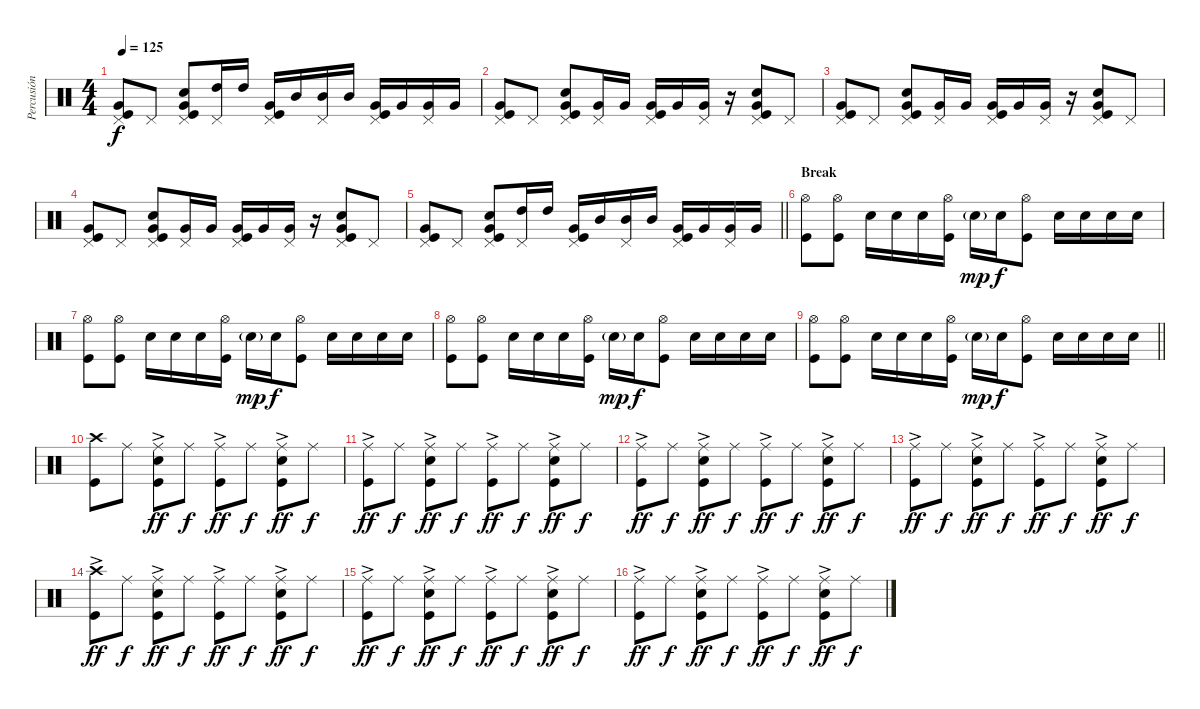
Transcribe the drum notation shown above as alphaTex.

\track ("Percusión" "Percusión") {instrument percussion}
\staff {score}
\articulation defaults
\ts (4 4)
\tempo 125
\clef neutral
\ks c
("Very Low Tom (hit)" "Pedal Hi-Hat (hit)" "Kick (hit)").8{dy f} "Pedal Hi-Hat (hit)".8 ("Very Low Tom (hit)" "Snare (hit) 2" "Pedal Hi-Hat (hit)" "Kick (hit)").8 ("High Tom (hit)" "Pedal Hi-Hat (hit)").16 "High Tom (hit)".16 ("Very Low Tom (hit)" "Pedal Hi-Hat (hit)" "Kick (hit)").16 "Mid Tom (hit)".16 ("Mid Tom (hit)" "Pedal Hi-Hat (hit)").16 "Mid Tom (hit)".16 ("Very Low Tom (hit)" "Pedal Hi-Hat (hit)" "Kick (hit)").16 "Very Low Tom (hit)".16 ("Very Low Tom (hit)" "Pedal Hi-Hat (hit)").16 "Very Low Tom (hit)".16 |
("Very Low Tom (hit)" "Kick (hit)" "Pedal Hi-Hat (hit)").8 "Pedal Hi-Hat (hit)".8 ("Very Low Tom (hit)" "Kick (hit)" "Snare (hit) 2" "Pedal Hi-Hat (hit)").8 ("Very Low Tom (hit)" "Pedal Hi-Hat (hit)").16 "Very Low Tom (hit)".16 ("Very Low Tom (hit)" "Pedal Hi-Hat (hit)" "Kick (hit)").16 "Very Low Tom (hit)".16 ("Very Low Tom (hit)" "Pedal Hi-Hat (hit)").16 r.16 ("Snare (hit) 2" "Very Low Tom (hit)" "Pedal Hi-Hat (hit)" "Kick (hit)").8 "Pedal Hi-Hat (hit)".8 |
("Very Low Tom (hit)" "Kick (hit)" "Pedal Hi-Hat (hit)").8 "Pedal Hi-Hat (hit)".8 ("Very Low Tom (hit)" "Kick (hit)" "Snare (hit) 2" "Pedal Hi-Hat (hit)").8 ("Very Low Tom (hit)" "Pedal Hi-Hat (hit)").16 "Very Low Tom (hit)".16 ("Very Low Tom (hit)" "Pedal Hi-Hat (hit)" "Kick (hit)").16 "Very Low Tom (hit)".16 ("Very Low Tom (hit)" "Pedal Hi-Hat (hit)").16 r.16 ("Snare (hit) 2" "Very Low Tom (hit)" "Pedal Hi-Hat (hit)" "Kick (hit)").8 "Pedal Hi-Hat (hit)".8 |
("Very Low Tom (hit)" "Kick (hit)" "Pedal Hi-Hat (hit)").8 "Pedal Hi-Hat (hit)".8 ("Very Low Tom (hit)" "Kick (hit)" "Snare (hit) 2" "Pedal Hi-Hat (hit)").8 ("Very Low Tom (hit)" "Pedal Hi-Hat (hit)").16 "Very Low Tom (hit)".16 ("Very Low Tom (hit)" "Pedal Hi-Hat (hit)" "Kick (hit)").16 "Very Low Tom (hit)".16 ("Very Low Tom (hit)" "Pedal Hi-Hat (hit)").16 r.16 ("Snare (hit) 2" "Very Low Tom (hit)" "Pedal Hi-Hat (hit)" "Kick (hit)").8 "Pedal Hi-Hat (hit)".8 |
\barLineRight lightlight
("Very Low Tom (hit)" "Pedal Hi-Hat (hit)" "Kick (hit)").8 "Pedal Hi-Hat (hit)".8 ("Very Low Tom (hit)" "Snare (hit) 2" "Pedal Hi-Hat (hit)" "Kick (hit)").8 ("High Tom (hit)" "Pedal Hi-Hat (hit)").16 "High Tom (hit)".16 ("Very Low Tom (hit)" "Pedal Hi-Hat (hit)" "Kick (hit)").16 "Mid Tom (hit)".16 ("Mid Tom (hit)" "Pedal Hi-Hat (hit)").16 "Mid Tom (hit)".16 ("Very Low Tom (hit)" "Pedal Hi-Hat (hit)" "Kick (hit)").16 "Very Low Tom (hit)".16 ("Very Low Tom (hit)" "Pedal Hi-Hat (hit)").16 "Very Low Tom (hit)".16 |
\section ("" "Break")
("Hi-Hat (open)" "Kick (hit)").8 ("Hi-Hat (open)" "Kick (hit)").8 "Snare (hit) 2".16 "Snare (hit) 2".16 "Snare (hit) 2".16 ("Hi-Hat (open)" "Kick (hit)").16 "Snare (hit) 2"{g}.16{dy mp} "Snare (hit) 2".16{dy f} ("Hi-Hat (open)" "Kick (hit)").8 "Snare (hit) 2".16 "Snare (hit) 2".16 "Snare (hit) 2".16 "Snare (hit) 2".16 |
("Hi-Hat (open)" "Kick (hit)").8 ("Hi-Hat (open)" "Kick (hit)").8 "Snare (hit) 2".16 "Snare (hit) 2".16 "Snare (hit) 2".16 ("Hi-Hat (open)" "Kick (hit)").16 "Snare (hit) 2"{g}.16{dy mp} "Snare (hit) 2".16{dy f} ("Hi-Hat (open)" "Kick (hit)").8 "Snare (hit) 2".16 "Snare (hit) 2".16 "Snare (hit) 2".16 "Snare (hit) 2".16 |
("Hi-Hat (open)" "Kick (hit)").8 ("Hi-Hat (open)" "Kick (hit)").8 "Snare (hit) 2".16 "Snare (hit) 2".16 "Snare (hit) 2".16 ("Hi-Hat (open)" "Kick (hit)").16 "Snare (hit) 2"{g}.16{dy mp} "Snare (hit) 2".16{dy f} ("Hi-Hat (open)" "Kick (hit)").8 "Snare (hit) 2".16 "Snare (hit) 2".16 "Snare (hit) 2".16 "Snare (hit) 2".16 |
\barLineRight lightlight
("Hi-Hat (open)" "Kick (hit)").8 ("Hi-Hat (open)" "Kick (hit)").8 "Snare (hit) 2".16 "Snare (hit) 2".16 "Snare (hit) 2".16 ("Hi-Hat (open)" "Kick (hit)").16 "Snare (hit) 2"{g}.16{dy mp} "Snare (hit) 2".16{dy f} ("Hi-Hat (open)" "Kick (hit)").8 "Snare (hit) 2".16 "Snare (hit) 2".16 "Snare (hit) 2".16 "Snare (hit) 2".16 |
("Crash high (hit)" "Kick (hit)").8 "Ride (middle)".8 ("Ride (middle)"{ac} "Snare (hit) 2" "Kick (hit)").8{dy ff} "Ride (middle)".8{dy f} ("Ride (middle)"{ac} "Kick (hit)").8{dy ff} "Ride (middle)".8{dy f} ("Ride (middle)"{ac} "Snare (hit) 2" "Kick (hit)").8{dy ff} "Ride (middle)".8{dy f} |
("Ride (middle)"{ac} "Kick (hit)").8{dy ff} "Ride (middle)".8{dy f} ("Ride (middle)"{ac} "Snare (hit) 2" "Kick (hit)").8{dy ff} "Ride (middle)".8{dy f} ("Ride (middle)"{ac} "Kick (hit)").8{dy ff} "Ride (middle)".8{dy f} ("Ride (middle)"{ac} "Snare (hit) 2" "Kick (hit)").8{dy ff} "Ride (middle)".8{dy f} |
("Ride (middle)"{ac} "Kick (hit)").8{dy ff} "Ride (middle)".8{dy f} ("Ride (middle)"{ac} "Snare (hit) 2" "Kick (hit)").8{dy ff} "Ride (middle)".8{dy f} ("Ride (middle)"{ac} "Kick (hit)").8{dy ff} "Ride (middle)".8{dy f} ("Ride (middle)"{ac} "Snare (hit) 2" "Kick (hit)").8{dy ff} "Ride (middle)".8{dy f} |
("Ride (middle)"{ac} "Kick (hit)").8{dy ff} "Ride (middle)".8{dy f} ("Ride (middle)"{ac} "Snare (hit) 2" "Kick (hit)").8{dy ff} "Ride (middle)".8{dy f} ("Ride (middle)"{ac} "Kick (hit)").8{dy ff} "Ride (middle)".8{dy f} ("Ride (middle)"{ac} "Snare (hit) 2" "Kick (hit)").8{dy ff} "Ride (middle)".8{dy f} |
("Crash high (hit)"{ac} "Kick (hit)").8{dy ff} "Ride (middle)".8{dy f} ("Ride (middle)"{ac} "Snare (hit) 2" "Kick (hit)").8{dy ff} "Ride (middle)".8{dy f} ("Ride (middle)"{ac} "Kick (hit)").8{dy ff} "Ride (middle)".8{dy f} ("Ride (middle)"{ac} "Snare (hit) 2" "Kick (hit)").8{dy ff} "Ride (middle)".8{dy f} |
("Ride (middle)"{ac} "Kick (hit)").8{dy ff} "Ride (middle)".8{dy f} ("Ride (middle)"{ac} "Snare (hit) 2" "Kick (hit)").8{dy ff} "Ride (middle)".8{dy f} ("Ride (middle)"{ac} "Kick (hit)").8{dy ff} "Ride (middle)".8{dy f} ("Ride (middle)"{ac} "Snare (hit) 2" "Kick (hit)").8{dy ff} "Ride (middle)".8{dy f} |
("Ride (middle)"{ac} "Kick (hit)").8{dy ff} "Ride (middle)".8{dy f} ("Ride (middle)"{ac} "Snare (hit) 2" "Kick (hit)").8{dy ff} "Ride (middle)".8{dy f} ("Ride (middle)"{ac} "Kick (hit)").8{dy ff} "Ride (middle)".8{dy f} ("Ride (middle)"{ac} "Snare (hit) 2" "Kick (hit)").8{dy ff} "Ride (middle)".8{dy f}
